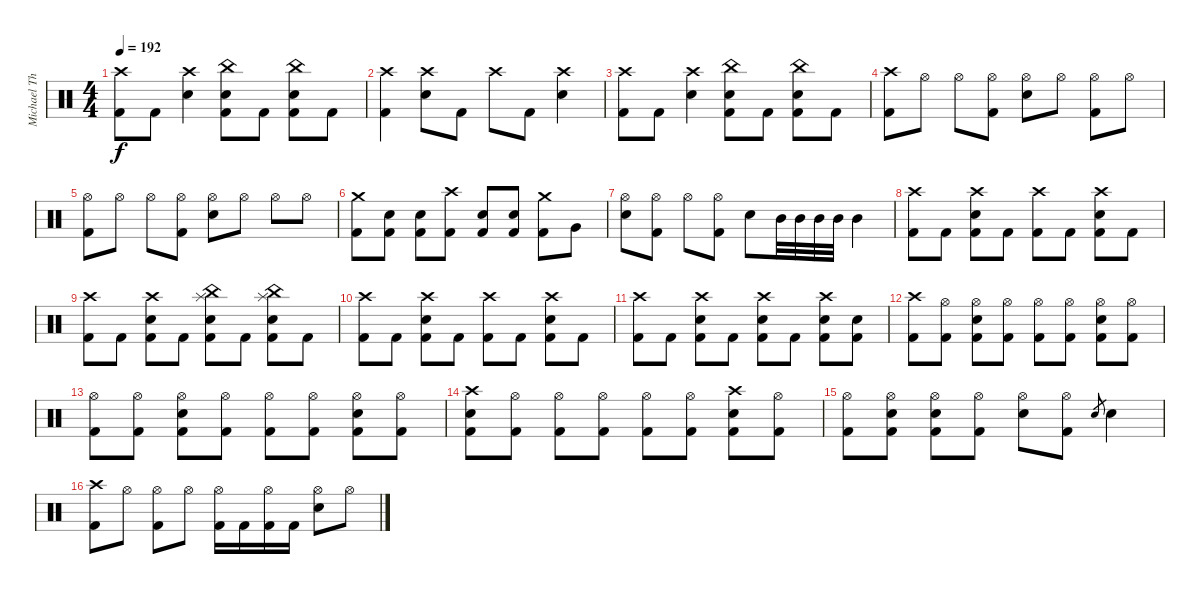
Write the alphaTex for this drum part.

\track ("Michael Thomas (Drums)" "Michael Th") {instrument percussion}
\staff {score}
\articulation defaults
\ts (4 4)
\tempo 192
\clef neutral
\ks c
("Crash high (hit)" "Kick (hit) 2").8{dy f} "Kick (hit) 2".8 ("Crash high (hit)" "Snare (hit) 2").4 ("China (hit)" "Snare (hit) 2" "Kick (hit) 2").8 "Kick (hit) 2".8 ("China (hit)" "Snare (hit) 2" "Kick (hit) 2").8 "Kick (hit) 2".8 |
("Crash high (hit)" "Kick (hit) 2").4 ("Crash high (hit)" "Snare (hit) 2").8 "Kick (hit) 2".8 "Crash high (hit)".8 "Kick (hit) 2".8 ("Crash high (hit)" "Snare (hit) 2").4 |
("Crash high (hit)" "Kick (hit) 2").8 "Kick (hit) 2".8 ("Crash high (hit)" "Snare (hit) 2").4 ("China (hit)" "Snare (hit) 2" "Kick (hit) 2").8 "Kick (hit) 2".8 ("China (hit)" "Snare (hit) 2" "Kick (hit) 2").8 "Kick (hit) 2".8 |
("Crash high (hit)" "Kick (hit) 2").8 "Hi-Hat (open)".8 "Hi-Hat (open)".8 ("Hi-Hat (open)" "Kick (hit) 2").8 ("Hi-Hat (open)" "Snare (hit) 2").8 "Hi-Hat (open)".8 ("Hi-Hat (open)" "Kick (hit) 2").8 "Hi-Hat (open)".8 |
("Hi-Hat (open)" "Kick (hit) 2").8 "Hi-Hat (open)".8 "Hi-Hat (open)".8 ("Hi-Hat (open)" "Kick (hit) 2").8 ("Hi-Hat (open)" "Snare (hit) 2").8 "Hi-Hat (open)".8 "Hi-Hat (open)".8 "Hi-Hat (open)".8 |
("Crash medium (hit)" "Kick (hit) 2").8 ("Snare (hit) 2" "Kick (hit) 2").8 ("Snare (hit) 2" "Kick (hit) 2").8 ("Crash high (hit)" "Kick (hit) 2").8 ("Snare (hit) 2" "Kick (hit) 2").8 ("Snare (hit) 2" "Kick (hit) 2").8 ("Crash medium (hit)" "Kick (hit) 2").8 "Very Low Tom (hit)".8 |
("Hi-Hat (open)" "Snare (hit) 2").8 ("Hi-Hat (open)" "Kick (hit) 2").8 "Hi-Hat (open)".8 ("Hi-Hat (open)" "Kick (hit) 2").8 "Snare (hit) 2".8 "Mid Tom (hit)".32 "Mid Tom (hit)".32 "Mid Tom (hit)".32 "Mid Tom (hit)".32 "Mid Tom (hit)".4 |
("Crash high (hit)" "Kick (hit) 2").8 "Kick (hit) 2".8 ("Snare (hit) 2" "Crash high (hit)" "Kick (hit) 2").8 "Kick (hit) 2".8 ("Crash high (hit)" "Kick (hit) 2").8 "Kick (hit) 2".8 ("Snare (hit) 2" "Crash high (hit)" "Kick (hit) 2").8 "Kick (hit) 2".8 |
("Crash high (hit)" "Kick (hit) 2").8 "Kick (hit) 2".8 ("Snare (hit) 2" "Crash high (hit)" "Kick (hit) 2").8 "Kick (hit) 2".8 ("Splash (hit)" "China (hit)" "Snare (hit) 2" "Kick (hit) 2").8 "Kick (hit) 2".8 ("Splash (hit)" "China (hit)" "Snare (hit) 2" "Kick (hit) 2").8 "Kick (hit) 2".8 |
("Crash high (hit)" "Kick (hit) 2").8 "Kick (hit) 2".8 ("Snare (hit) 2" "Crash high (hit)" "Kick (hit) 2").8 "Kick (hit) 2".8 ("Crash high (hit)" "Kick (hit) 2").8 "Kick (hit) 2".8 ("Snare (hit) 2" "Crash high (hit)" "Kick (hit) 2").8 "Kick (hit) 2".8 |
("Crash high (hit)" "Kick (hit) 2").8 "Kick (hit) 2".8 ("Snare (hit) 2" "Crash high (hit)" "Kick (hit) 2").8 "Kick (hit) 2".8 ("Crash high (hit)" "Snare (hit) 2" "Kick (hit) 2").8 "Kick (hit) 2".8 ("Crash high (hit)" "Snare (hit) 2" "Kick (hit) 2").8 ("Snare (hit) 2" "Kick (hit) 2").8 |
("Crash high (hit)" "Kick (hit) 2").8 ("Hi-Hat (open)" "Kick (hit) 2").8 ("Hi-Hat (open)" "Snare (hit) 2" "Kick (hit) 2").8 ("Hi-Hat (open)" "Kick (hit) 2").8 ("Hi-Hat (open)" "Kick (hit) 2").8 ("Hi-Hat (open)" "Kick (hit) 2").8 ("Hi-Hat (open)" "Snare (hit) 2" "Kick (hit) 2").8 ("Hi-Hat (open)" "Kick (hit) 2").8 |
("Hi-Hat (open)" "Kick (hit) 2").8 ("Hi-Hat (open)" "Kick (hit) 2").8 ("Hi-Hat (open)" "Snare (hit) 2" "Kick (hit) 2").8 ("Hi-Hat (open)" "Kick (hit) 2").8 ("Hi-Hat (open)" "Kick (hit) 2").8 ("Hi-Hat (open)" "Kick (hit) 2").8 ("Hi-Hat (open)" "Snare (hit) 2" "Kick (hit) 2").8 ("Hi-Hat (open)" "Kick (hit) 2").8 |
("Crash high (hit)" "Snare (hit) 2" "Kick (hit) 2").8 ("Hi-Hat (open)" "Kick (hit) 2").8 ("Hi-Hat (open)" "Kick (hit) 2").8 ("Hi-Hat (open)" "Kick (hit) 2").8 ("Hi-Hat (open)" "Kick (hit) 2").8 ("Hi-Hat (open)" "Kick (hit) 2").8 ("Crash high (hit)" "Snare (hit) 2" "Kick (hit) 2").8 ("Hi-Hat (open)" "Kick (hit) 2").8 |
("Hi-Hat (open)" "Kick (hit) 2").8 ("Hi-Hat (open)" "Snare (hit) 2" "Kick (hit) 2").8 ("Hi-Hat (open)" "Snare (hit) 2" "Kick (hit) 2").8 ("Hi-Hat (open)" "Kick (hit) 2").8 ("Hi-Hat (open)" "Snare (hit) 2").8 ("Hi-Hat (open)" "Kick (hit) 2").8 "Snare (hit) 2".8{gr} "Snare (hit) 2".4 |
("Crash high (hit)" "Kick (hit) 2").8 "Hi-Hat (open)".8 ("Hi-Hat (open)" "Kick (hit) 2").8 "Hi-Hat (open)".8 ("Hi-Hat (open)" "Kick (hit) 2").16 "Kick (hit) 2".16 ("Hi-Hat (open)" "Kick (hit) 2").16 "Kick (hit) 2".16 ("Hi-Hat (open)" "Snare (hit) 2").8 "Hi-Hat (open)".8
